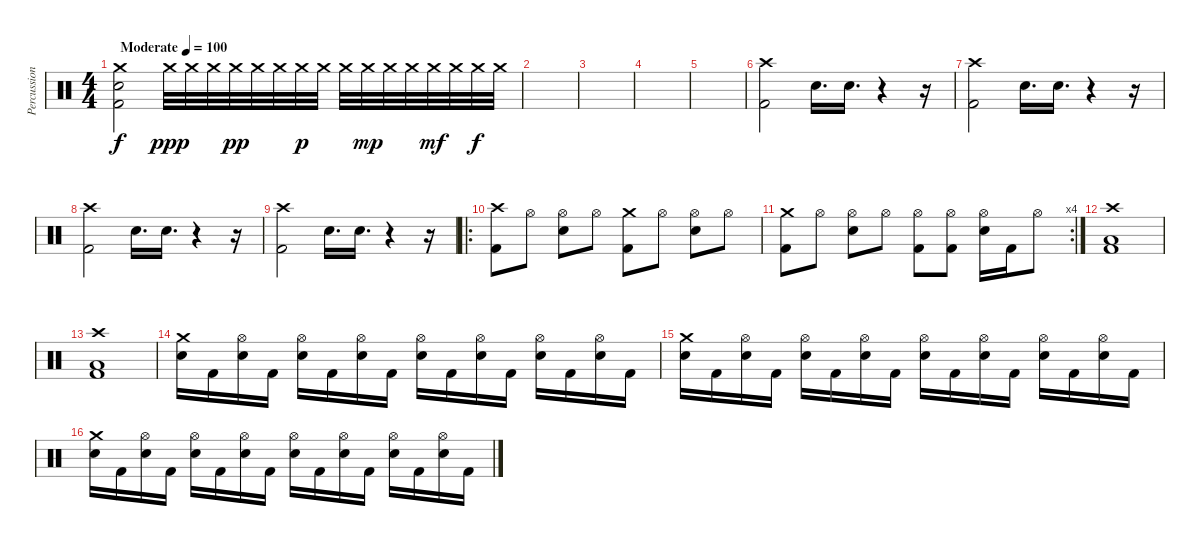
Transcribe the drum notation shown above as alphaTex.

\track ("Percussion" "Percussion") {instrument percussion}
\staff {score}
\articulation defaults
\ts (4 4)
\tempo (100 "Moderate")
\tempo 98
\tempo (100 "Moderate")
\clef neutral
\ks c
("Crash medium (hit)" "Snare (hit) 2" "Kick (hit) 2").2{dy f} "Crash medium (hit)".32{dy ppp} "Crash medium (hit)".32 "Crash medium (hit)".32 "Crash medium (hit)".32{dy pp} "Crash medium (hit)".32 "Crash medium (hit)".32 "Crash medium (hit)".32{dy p} "Crash medium (hit)".32 "Crash medium (hit)".32 "Crash medium (hit)".32{dy mp} "Crash medium (hit)".32 "Crash medium (hit)".32 "Crash medium (hit)".32{dy mf} "Crash medium (hit)".32 "Crash medium (hit)".32{dy f} "Crash medium (hit)".32 |
|
|
|
|
("Crash high (hit)" "Kick (hit) 2").2 "Snare (hit) 2".16{d} "Snare (hit) 2".16{d} r.4 r.16 |
("Crash high (hit)" "Kick (hit) 2").2 "Snare (hit) 2".16{d} "Snare (hit) 2".16{d} r.4 r.16 |
("Crash high (hit)" "Kick (hit) 2").2 "Snare (hit) 2".16{d} "Snare (hit) 2".16{d} r.4 r.16 |
("Crash high (hit)" "Kick (hit) 2").2 "Snare (hit) 2".16{d} "Snare (hit) 2".16{d} r.4 r.16 |
\ro
("Crash high (hit)" "Kick (hit) 2").8 "Hi-Hat (open)".8 ("Hi-Hat (open)" "Snare (hit) 2").8 "Hi-Hat (open)".8 ("Crash medium (hit)" "Kick (hit) 2").8 "Hi-Hat (open)".8 ("Hi-Hat (open)" "Snare (hit) 2").8 "Hi-Hat (open)".8 |
\rc 4
("Crash medium (hit)" "Kick (hit) 2").8 "Hi-Hat (open)".8 ("Hi-Hat (open)" "Snare (hit) 2").8 "Hi-Hat (open)".8 ("Hi-Hat (open)" "Kick (hit) 2").8 ("Hi-Hat (open)" "Kick (hit) 2").8 ("Hi-Hat (open)" "Snare (hit) 2").16 "Kick (hit) 2".16 "Hi-Hat (open)".8 |
("Crash high (hit)" "Low Floor Tom (hit)" "Kick (hit) 2").1 |
("Crash high (hit)" "Low Floor Tom (hit)" "Kick (hit) 2").1 |
("Crash medium (hit)" "Snare (hit) 2").16 "Kick (hit) 2".16 ("Hi-Hat (open)" "Snare (hit) 2").16 "Kick (hit) 2".16 ("Hi-Hat (open)" "Snare (hit) 2").16 "Kick (hit) 2".16 ("Hi-Hat (open)" "Snare (hit) 2").16 "Kick (hit) 2".16 ("Hi-Hat (open)" "Snare (hit) 2").16 "Kick (hit) 2".16 ("Hi-Hat (open)" "Snare (hit) 2").16 "Kick (hit) 2".16 ("Hi-Hat (open)" "Snare (hit) 2").16 "Kick (hit) 2".16 ("Hi-Hat (open)" "Snare (hit) 2").16 "Kick (hit) 2".16 |
("Crash medium (hit)" "Snare (hit) 2").16 "Kick (hit) 2".16 ("Hi-Hat (open)" "Snare (hit) 2").16 "Kick (hit) 2".16 ("Hi-Hat (open)" "Snare (hit) 2").16 "Kick (hit) 2".16 ("Hi-Hat (open)" "Snare (hit) 2").16 "Kick (hit) 2".16 ("Hi-Hat (open)" "Snare (hit) 2").16 "Kick (hit) 2".16 ("Hi-Hat (open)" "Snare (hit) 2").16 "Kick (hit) 2".16 ("Hi-Hat (open)" "Snare (hit) 2").16 "Kick (hit) 2".16 ("Hi-Hat (open)" "Snare (hit) 2").16 "Kick (hit) 2".16 |
("Crash medium (hit)" "Snare (hit) 2").16 "Kick (hit) 2".16 ("Hi-Hat (open)" "Snare (hit) 2").16 "Kick (hit) 2".16 ("Hi-Hat (open)" "Snare (hit) 2").16 "Kick (hit) 2".16 ("Hi-Hat (open)" "Snare (hit) 2").16 "Kick (hit) 2".16 ("Hi-Hat (open)" "Snare (hit) 2").16 "Kick (hit) 2".16 ("Hi-Hat (open)" "Snare (hit) 2").16 "Kick (hit) 2".16 ("Hi-Hat (open)" "Snare (hit) 2").16 "Kick (hit) 2".16 ("Hi-Hat (open)" "Snare (hit) 2").16 "Kick (hit) 2".16
